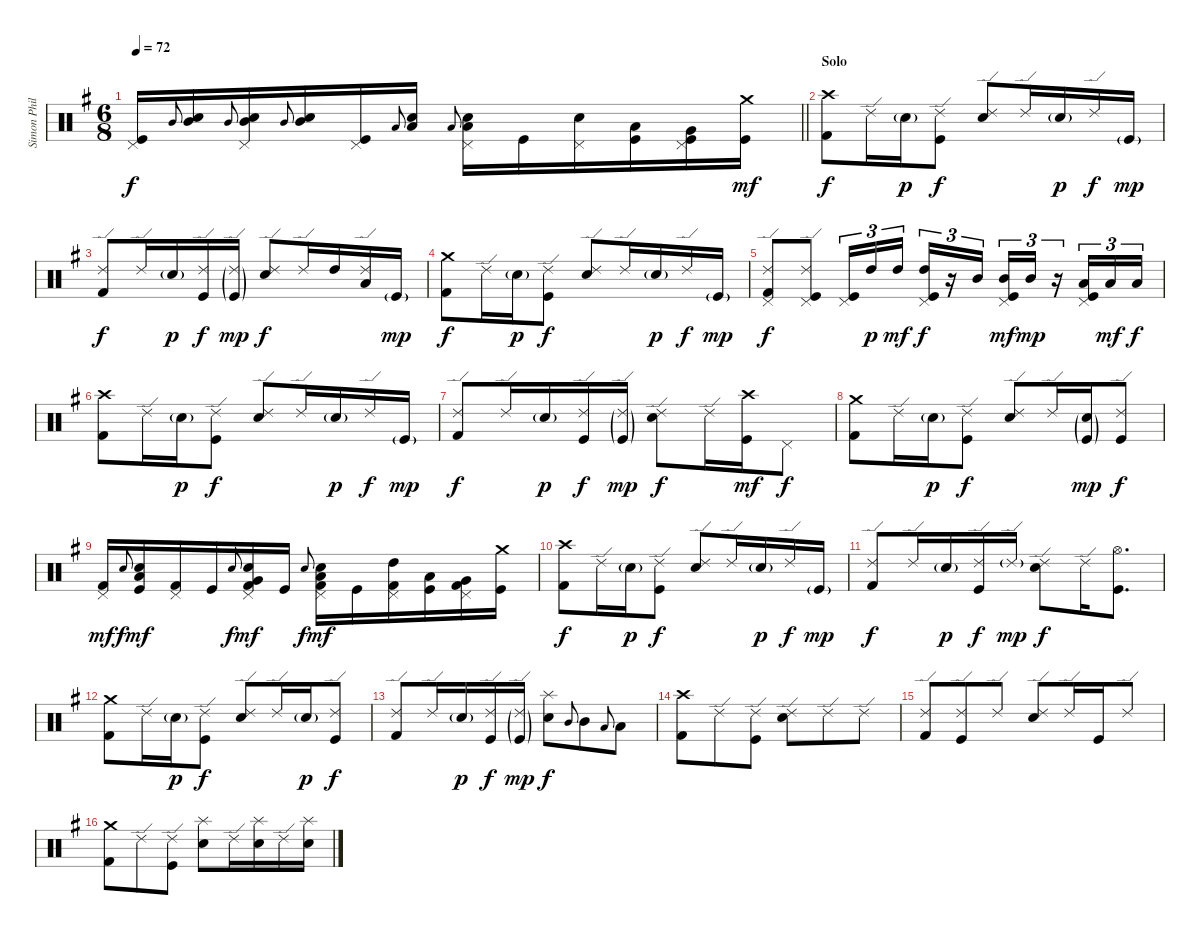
\track ("Simon Phillips" "Simon Phil") {instrument percussion}
\staff {score}
\articulation defaults
\ts (6 8)
\tempo 72
\clef neutral
\barLineRight lightlight
\ks eminor
("Pedal Hi-Hat (hit)" "Kick (hit)").16{dy f} "Mid Tom (hit)".8{gr onbeat} ("Mid Tom (hit)" "Electric Snare (hit)").16 "Mid Tom (hit)".8{gr onbeat} ("Pedal Hi-Hat (hit)" "Mid Tom (hit)" "Electric Snare (hit)").16 "Mid Tom (hit)".8{gr onbeat} ("Mid Tom (hit)" "Electric Snare (hit)").16 ("Pedal Hi-Hat (hit)" "Kick (hit)").16 "Low Tom (hit)".8{gr onbeat} ("Low Tom (hit)" "Electric Snare (hit)").16 "Low Tom (hit)".8{gr onbeat} ("Pedal Hi-Hat (hit)" "Low Tom (hit)" "Electric Snare (hit)").16 "Kick (hit)".16 ("Pedal Hi-Hat (hit)" "Electric Snare (hit)").16 ("Low Tom (hit)" "Kick (hit)").16 ("Pedal Hi-Hat (hit)" "Very Low Tom (hit)" "Kick (hit)").16 ("Crash medium (hit)" "Kick (hit)").16{dy mf} |
\section ("" "Solo")
("Crash high (hit)" "Kick (hit) 2").8{dy f} "Ride (edge) 2".16 "Electric Snare (hit)"{g}.16{dy p} ("Ride (edge) 2" "Kick (hit)").8{dy f} ("Ride (edge) 2" "Electric Snare (hit)").8 "Ride (edge) 2".16 "Electric Snare (hit)"{g}.16{dy p} "Ride (edge) 2".16{dy f} "Kick (hit)"{g}.16{dy mp} |
("Ride (edge) 2" "Kick (hit) 2").8{dy f} "Ride (edge) 2".16 "Electric Snare (hit)"{g}.16{dy p} ("Ride (edge) 2" "Kick (hit)").16{dy f} ("Ride (edge) 2"{g} "Kick (hit)"{g}).16{dy mp} ("Ride (edge) 2" "Electric Snare (hit)").8{dy f} "Ride (edge) 2".16 "High Tom (hit)".16 ("Ride (edge) 2" "Low Tom (hit)").16 "Kick (hit)"{g}.16{dy mp} |
("Crash medium (hit)" "Kick (hit) 2").8{dy f} "Ride (edge) 2".16 "Electric Snare (hit)"{g}.16{dy p} ("Ride (edge) 2" "Kick (hit)").8{dy f} ("Ride (edge) 2" "Electric Snare (hit)").8 "Ride (edge) 2".16 "Electric Snare (hit)"{g}.16{dy p} "Ride (edge) 2".16{dy f} "Kick (hit)"{g}.16{dy mp} |
("Pedal Hi-Hat (hit)" "Ride (edge) 2" "Kick (hit) 2").8{dy f} ("Pedal Hi-Hat (hit)" "Ride (edge) 2" "Kick (hit)").8 ("Pedal Hi-Hat (hit)" "Kick (hit)").16{tu (3 2)} "High Tom (hit)".16{tu (3 2) dy p} "High Tom (hit)".16{tu (3 2) dy mf} ("Pedal Hi-Hat (hit)" "High Tom (hit)" "Kick (hit)").16{tu (3 2) dy f} r.16{tu (3 2)} "Mid Tom (hit)".16{tu (3 2) beam splitsecondary} ("Pedal Hi-Hat (hit)" "Mid Tom (hit)" "Kick (hit)").16{tu (3 2) dy mf} "Mid Tom (hit)".16{tu (3 2) dy mp} r.16{tu (3 2)} ("Pedal Hi-Hat (hit)" "Low Tom (hit)" "Kick (hit)").16{tu (3 2)} "Low Tom (hit)".16{tu (3 2) dy mf} "Low Tom (hit)".16{tu (3 2) dy f} |
("Crash high (hit)" "Kick (hit) 2").8 "Ride (edge) 2".16 "Electric Snare (hit)"{g}.16{dy p} ("Ride (edge) 2" "Kick (hit)").8{dy f} ("Ride (edge) 2" "Electric Snare (hit)").8 "Ride (edge) 2".16 "Electric Snare (hit)"{g}.16{dy p} "Ride (edge) 2".16{dy f} "Kick (hit)"{g}.16{dy mp} |
("Ride (edge) 2" "Kick (hit) 2").8{dy f} "Ride (edge) 2".16 "Electric Snare (hit)"{g}.16{dy p} ("Ride (edge) 2" "Kick (hit)").16{dy f} ("Ride (edge) 2"{g} "Kick (hit)"{g}).16{dy mp} ("Ride (edge) 2" "Electric Snare (hit)").8{dy f} "Ride (edge) 2".16 ("Crash high (hit)" "Kick (hit)").16{dy mf} "Pedal Hi-Hat (hit)".8{dy f} |
("Crash medium (hit)" "Kick (hit) 2").8 "Ride (edge) 2".16 "Electric Snare (hit)"{g}.16{dy p} ("Ride (edge) 2" "Kick (hit)").8{dy f} ("Ride (edge) 2" "Electric Snare (hit)").8 "Ride (edge) 2".16 ("Electric Snare (hit)"{g} "Kick (hit)"{g}).16{dy mp} ("Ride (edge) 2" "Kick (hit)").8{dy f} |
("Pedal Hi-Hat (hit)" "Kick (hit) 2").16{dy mf} "Electric Snare (hit)".8{gr onbeat dy f} ("Low Tom (hit)" "Electric Snare (hit)" "Kick (hit)").16{dy mf} ("Pedal Hi-Hat (hit)" "Kick (hit) 2").16 "Kick (hit)".16 "Electric Snare (hit)".8{gr onbeat dy f} ("Pedal Hi-Hat (hit)" "Very Low Tom (hit)" "Electric Snare (hit)" "Kick (hit) 2").16{dy mf} "Kick (hit)".16 "Electric Snare (hit)".8{gr onbeat dy f} ("Pedal Hi-Hat (hit)" "Low Floor Tom (hit)" "Electric Snare (hit)" "Kick (hit) 2").16{dy mf} "Kick (hit)".16 ("Pedal Hi-Hat (hit)" "High Tom (hit)" "Kick (hit) 2").16 ("Low Tom (hit)" "Kick (hit)").16 ("Pedal Hi-Hat (hit)" "Very Low Tom (hit)" "Kick (hit) 2").16 ("Crash medium (hit)" "Kick (hit)").16 |
("Crash high (hit)" "Kick (hit) 2").8{dy f} "Ride (edge) 2".16 "Electric Snare (hit)"{g}.16{dy p} ("Ride (edge) 2" "Kick (hit)").8{dy f} ("Ride (edge) 2" "Electric Snare (hit)").8 "Ride (edge) 2".16 "Electric Snare (hit)"{g}.16{dy p} "Ride (edge) 2".16{dy f} "Kick (hit)"{g}.16{dy mp} |
("Ride (edge) 2" "Kick (hit) 2").8{dy f} "Ride (edge) 2".16 "Electric Snare (hit)"{g}.16{dy p} ("Ride (edge) 2" "Kick (hit)").16{dy f} "Ride (edge) 2"{g}.16{dy mp} ("Ride (edge) 2" "Electric Snare (hit)").8{dy f} "Ride (edge) 2".16 ("Hi-Hat (open)" "Kick (hit)").8{d} |
("Crash medium (hit)" "Kick (hit) 2").8 "Ride (edge) 2".16 "Electric Snare (hit)"{g}.16{dy p} ("Ride (edge) 2" "Kick (hit)").8{dy f} ("Ride (edge) 2" "Electric Snare (hit)").8 "Ride (edge) 2".16 "Electric Snare (hit)"{g}.16{dy p} ("Ride (edge) 2" "Kick (hit)").8{dy f} |
("Ride (edge) 2" "Kick (hit) 2").8 "Ride (edge) 2".16 "Electric Snare (hit)"{g}.16{dy p} ("Ride (edge) 2" "Kick (hit)").16{dy f} ("Ride (edge) 2"{g} "Kick (hit)"{g}).16{dy mp} ("Splash (hit)" "Electric Snare (hit)").8{dy f} "Mid Tom (hit)".8{gr onbeat} "Mid Tom (hit)".8 "Low Tom (hit)".8{gr onbeat} "Low Tom (hit)".8 |
("Crash high (hit)" "Kick (hit) 2").8 "Ride (edge) 2".8 ("Ride (edge) 2" "Kick (hit)").8 ("Ride (edge) 2" "Electric Snare (hit)").8 "Ride (edge) 2".8 "Ride (edge) 2".8 |
("Ride (edge) 2" "Kick (hit) 2").8 ("Ride (edge) 2" "Kick (hit)").8 "Ride (edge) 2".8 ("Ride (edge) 2" "Electric Snare (hit)").8 "Ride (edge) 2".16 "Kick (hit)".16 "Ride (edge) 2".8 |
("Crash medium (hit)" "Kick (hit) 2").8 "Ride (edge) 2".8 ("Ride (edge) 2" "Kick (hit)").8 ("Splash (hit)" "Electric Snare (hit)").8 "Ride (edge) 2".16 ("Splash (hit)" "Electric Snare (hit)").16 "Ride (edge) 2".16 ("Splash (hit)" "Electric Snare (hit)").16
